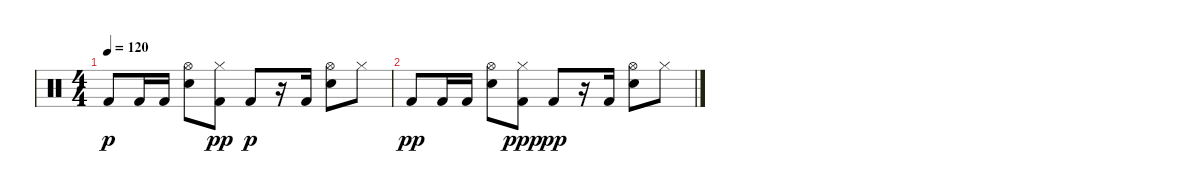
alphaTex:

\track "" {instrument percussion}
\staff {score}
\articulation defaults
\ts (4 4)
\tempo 120
\clef neutral
\ks c "Kick (hit) 2".8{dy p volume 6} "Kick (hit) 2".16 "Kick (hit) 2".16
("Electric Snare (hit)" "Hi-Hat (open)").8 ("Kick (hit) 2" "Hi-Hat (closed)").8{dy pp} "Kick (hit) 2".8{dy p} r.16 "Kick (hit) 2".16 ("Electric Snare (hit)" "Hi-Hat (open)").8 "Hi-Hat (closed)".8 |
"Kick (hit) 2".8{dy pp volume 5} "Kick (hit) 2".16 "Kick (hit) 2".16 ("Electric Snare (hit)" "Hi-Hat (open)").8 ("Kick (hit) 2" "Hi-Hat (closed)").8{dy ppp} "Kick (hit) 2".8{dy pp} r.16 "Kick (hit) 2".16 ("Electric Snare (hit)" "Hi-Hat (open)").8 "Hi-Hat (closed)".8
